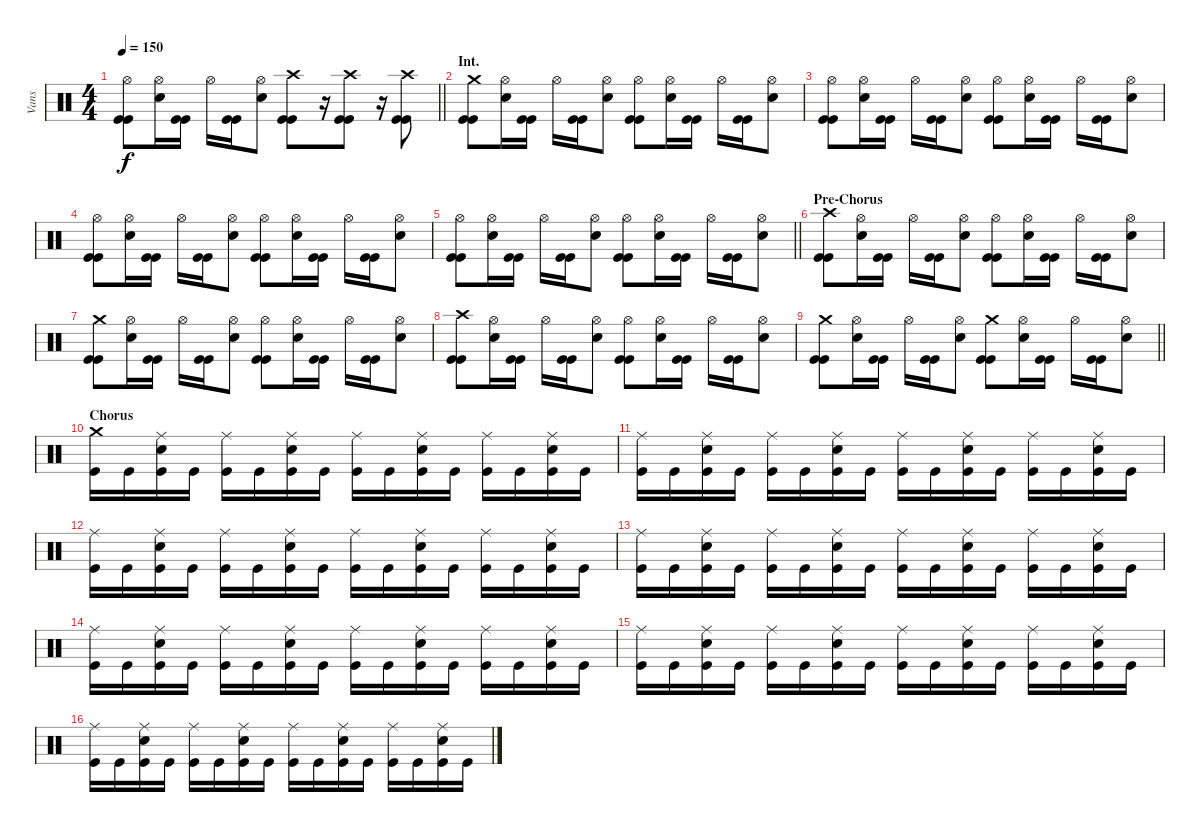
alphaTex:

\track ("Vans" "Vans") {instrument percussion}
\staff {score}
\articulation defaults
\ts (4 4)
\tempo 150
\clef neutral
\barLineRight lightlight
\ks c
("Hi-Hat (open)" "Kick (hit)" "Kick (hit)").8{dy f} ("Hi-Hat (open)" "Snare (hit) 2").16 ("Kick (hit)" "Kick (hit)").16 "Hi-Hat (open)".16 ("Kick (hit)" "Kick (hit)").16 ("Hi-Hat (open)" "Snare (hit) 2").8 ("Crash high (hit)" "Kick (hit)" "Kick (hit)").8 r.16 ("Crash high (hit)" "Kick (hit)" "Kick (hit)").8 r.16 ("Crash high (hit)" "Kick (hit)" "Kick (hit)").8 |
\section ("" "Int.")
("Crash medium (hit)" "Kick (hit)" "Kick (hit)").8 ("Hi-Hat (open)" "Snare (hit) 2").16 ("Kick (hit)" "Kick (hit)").16 "Hi-Hat (open)".16 ("Kick (hit)" "Kick (hit)").16 ("Hi-Hat (open)" "Snare (hit) 2").8 ("Hi-Hat (open)" "Kick (hit)" "Kick (hit)").8 ("Hi-Hat (open)" "Snare (hit) 2").16 ("Kick (hit)" "Kick (hit)").16 "Hi-Hat (open)".16 ("Kick (hit)" "Kick (hit)").16 ("Hi-Hat (open)" "Snare (hit) 2").8 |
("Hi-Hat (open)" "Kick (hit)" "Kick (hit)").8 ("Hi-Hat (open)" "Snare (hit) 2").16 ("Kick (hit)" "Kick (hit)").16 "Hi-Hat (open)".16 ("Kick (hit)" "Kick (hit)").16 ("Hi-Hat (open)" "Snare (hit) 2").8 ("Hi-Hat (open)" "Kick (hit)" "Kick (hit)").8 ("Hi-Hat (open)" "Snare (hit) 2").16 ("Kick (hit)" "Kick (hit)").16 "Hi-Hat (open)".16 ("Kick (hit)" "Kick (hit)").16 ("Hi-Hat (open)" "Snare (hit) 2").8 |
("Hi-Hat (open)" "Kick (hit)" "Kick (hit)").8 ("Hi-Hat (open)" "Snare (hit) 2").16 ("Kick (hit)" "Kick (hit)").16 "Hi-Hat (open)".16 ("Kick (hit)" "Kick (hit)").16 ("Hi-Hat (open)" "Snare (hit) 2").8 ("Hi-Hat (open)" "Kick (hit)" "Kick (hit)").8 ("Hi-Hat (open)" "Snare (hit) 2").16 ("Kick (hit)" "Kick (hit)").16 "Hi-Hat (open)".16 ("Kick (hit)" "Kick (hit)").16 ("Hi-Hat (open)" "Snare (hit) 2").8 |
\barLineRight lightlight
("Hi-Hat (open)" "Kick (hit)" "Kick (hit)").8 ("Hi-Hat (open)" "Snare (hit) 2").16 ("Kick (hit)" "Kick (hit)").16 "Hi-Hat (open)".16 ("Kick (hit)" "Kick (hit)").16 ("Hi-Hat (open)" "Snare (hit) 2").8 ("Hi-Hat (open)" "Kick (hit)" "Kick (hit)").8 ("Hi-Hat (open)" "Snare (hit) 2").16 ("Kick (hit)" "Kick (hit)").16 "Hi-Hat (open)".16 ("Kick (hit)" "Kick (hit)").16 ("Hi-Hat (open)" "Snare (hit) 2").8 |
\section ("" "Pre-Chorus")
("Crash high (hit)" "Kick (hit)" "Kick (hit)").8 ("Hi-Hat (open)" "Snare (hit) 2").16 ("Kick (hit)" "Kick (hit)").16 "Hi-Hat (open)".16 ("Kick (hit)" "Kick (hit)").16 ("Hi-Hat (open)" "Snare (hit) 2").8 ("Hi-Hat (open)" "Kick (hit)" "Kick (hit)").8 ("Hi-Hat (open)" "Snare (hit) 2").16 ("Kick (hit)" "Kick (hit)").16 "Hi-Hat (open)".16 ("Kick (hit)" "Kick (hit)").16 ("Hi-Hat (open)" "Snare (hit) 2").8 |
("Crash medium (hit)" "Kick (hit)" "Kick (hit)").8 ("Hi-Hat (open)" "Snare (hit) 2").16 ("Kick (hit)" "Kick (hit)").16 "Hi-Hat (open)".16 ("Kick (hit)" "Kick (hit)").16 ("Hi-Hat (open)" "Snare (hit) 2").8 ("Hi-Hat (open)" "Kick (hit)" "Kick (hit)").8 ("Hi-Hat (open)" "Snare (hit) 2").16 ("Kick (hit)" "Kick (hit)").16 "Hi-Hat (open)".16 ("Kick (hit)" "Kick (hit)").16 ("Hi-Hat (open)" "Snare (hit) 2").8 |
("Crash high (hit)" "Kick (hit)" "Kick (hit)").8 ("Hi-Hat (open)" "Snare (hit) 2").16 ("Kick (hit)" "Kick (hit)").16 "Hi-Hat (open)".16 ("Kick (hit)" "Kick (hit)").16 ("Hi-Hat (open)" "Snare (hit) 2").8 ("Hi-Hat (open)" "Kick (hit)" "Kick (hit)").8 ("Hi-Hat (open)" "Snare (hit) 2").16 ("Kick (hit)" "Kick (hit)").16 "Hi-Hat (open)".16 ("Kick (hit)" "Kick (hit)").16 ("Hi-Hat (open)" "Snare (hit) 2").8 |
\barLineRight lightlight
("Crash medium (hit)" "Kick (hit)" "Kick (hit)").8 ("Hi-Hat (open)" "Snare (hit) 2").16 ("Kick (hit)" "Kick (hit)").16 "Hi-Hat (open)".16 ("Kick (hit)" "Kick (hit)").16 ("Hi-Hat (open)" "Snare (hit) 2").8 ("Crash medium (hit)" "Kick (hit)" "Kick (hit)").8 ("Hi-Hat (open)" "Snare (hit) 2").16 ("Kick (hit)" "Kick (hit)").16 "Hi-Hat (open)".16 ("Kick (hit)" "Kick (hit)").16 ("Hi-Hat (open)" "Snare (hit) 2").8 |
\section ("" "Chorus")
("Crash medium (hit)" "Kick (hit)").16 "Kick (hit)".16 ("Ride (middle)" "Kick (hit)" "Snare (hit) 2").16 "Kick (hit)".16 ("Ride (middle)" "Kick (hit)").16 "Kick (hit)".16 ("Ride (middle)" "Kick (hit)" "Snare (hit) 2").16 "Kick (hit)".16 ("Ride (middle)" "Kick (hit)").16 "Kick (hit)".16 ("Ride (middle)" "Kick (hit)" "Snare (hit) 2").16 "Kick (hit)".16 ("Ride (middle)" "Kick (hit)").16 "Kick (hit)".16 ("Ride (middle)" "Kick (hit)" "Snare (hit) 2").16 "Kick (hit)".16 |
("Ride (middle)" "Kick (hit)").16 "Kick (hit)".16 ("Ride (middle)" "Kick (hit)" "Snare (hit) 2").16 "Kick (hit)".16 ("Ride (middle)" "Kick (hit)").16 "Kick (hit)".16 ("Ride (middle)" "Kick (hit)" "Snare (hit) 2").16 "Kick (hit)".16 ("Ride (middle)" "Kick (hit)").16 "Kick (hit)".16 ("Ride (middle)" "Kick (hit)" "Snare (hit) 2").16 "Kick (hit)".16 ("Ride (middle)" "Kick (hit)").16 "Kick (hit)".16 ("Ride (middle)" "Kick (hit)" "Snare (hit) 2").16 "Kick (hit)".16 |
("Ride (middle)" "Kick (hit)").16 "Kick (hit)".16 ("Ride (middle)" "Kick (hit)" "Snare (hit) 2").16 "Kick (hit)".16 ("Ride (middle)" "Kick (hit)").16 "Kick (hit)".16 ("Ride (middle)" "Kick (hit)" "Snare (hit) 2").16 "Kick (hit)".16 ("Ride (middle)" "Kick (hit)").16 "Kick (hit)".16 ("Ride (middle)" "Kick (hit)" "Snare (hit) 2").16 "Kick (hit)".16 ("Ride (middle)" "Kick (hit)").16 "Kick (hit)".16 ("Ride (middle)" "Kick (hit)" "Snare (hit) 2").16 "Kick (hit)".16 |
("Ride (middle)" "Kick (hit)").16 "Kick (hit)".16 ("Ride (middle)" "Kick (hit)" "Snare (hit) 2").16 "Kick (hit)".16 ("Ride (middle)" "Kick (hit)").16 "Kick (hit)".16 ("Ride (middle)" "Kick (hit)" "Snare (hit) 2").16 "Kick (hit)".16 ("Ride (middle)" "Kick (hit)").16 "Kick (hit)".16 ("Ride (middle)" "Kick (hit)" "Snare (hit) 2").16 "Kick (hit)".16 ("Ride (middle)" "Kick (hit)").16 "Kick (hit)".16 ("Ride (middle)" "Kick (hit)" "Snare (hit) 2").16 "Kick (hit)".16 |
("Ride (middle)" "Kick (hit)").16 "Kick (hit)".16 ("Ride (middle)" "Kick (hit)" "Snare (hit) 2").16 "Kick (hit)".16 ("Ride (middle)" "Kick (hit)").16 "Kick (hit)".16 ("Ride (middle)" "Kick (hit)" "Snare (hit) 2").16 "Kick (hit)".16 ("Ride (middle)" "Kick (hit)").16 "Kick (hit)".16 ("Ride (middle)" "Kick (hit)" "Snare (hit) 2").16 "Kick (hit)".16 ("Ride (middle)" "Kick (hit)").16 "Kick (hit)".16 ("Ride (middle)" "Kick (hit)" "Snare (hit) 2").16 "Kick (hit)".16 |
("Ride (middle)" "Kick (hit)").16 "Kick (hit)".16 ("Ride (middle)" "Kick (hit)" "Snare (hit) 2").16 "Kick (hit)".16 ("Ride (middle)" "Kick (hit)").16 "Kick (hit)".16 ("Ride (middle)" "Kick (hit)" "Snare (hit) 2").16 "Kick (hit)".16 ("Ride (middle)" "Kick (hit)").16 "Kick (hit)".16 ("Ride (middle)" "Kick (hit)" "Snare (hit) 2").16 "Kick (hit)".16 ("Ride (middle)" "Kick (hit)").16 "Kick (hit)".16 ("Ride (middle)" "Kick (hit)" "Snare (hit) 2").16 "Kick (hit)".16 |
("Ride (middle)" "Kick (hit)").16 "Kick (hit)".16 ("Ride (middle)" "Kick (hit)" "Snare (hit) 2").16 "Kick (hit)".16 ("Ride (middle)" "Kick (hit)").16 "Kick (hit)".16 ("Ride (middle)" "Kick (hit)" "Snare (hit) 2").16 "Kick (hit)".16 ("Ride (middle)" "Kick (hit)").16 "Kick (hit)".16 ("Ride (middle)" "Kick (hit)" "Snare (hit) 2").16 "Kick (hit)".16 ("Ride (middle)" "Kick (hit)").16 "Kick (hit)".16 ("Ride (middle)" "Kick (hit)" "Snare (hit) 2").16 "Kick (hit)".16
